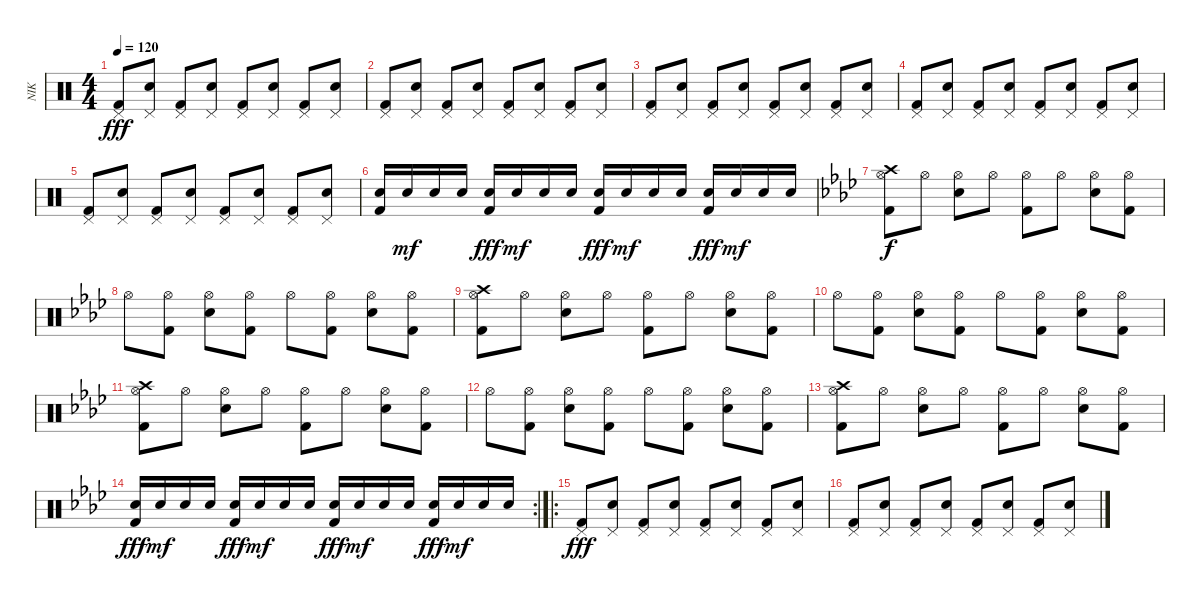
\track ("NIK" "NIK") {instrument percussion}
\staff {score}
\articulation defaults
\ts (4 4)
\tempo 120
\clef neutral
\ks c
("Pedal Hi-Hat (hit)" "Kick (hit) 2").8{dy fff} ("Pedal Hi-Hat (hit)" "Electric Snare (hit)").8 ("Pedal Hi-Hat (hit)" "Kick (hit) 2").8 ("Pedal Hi-Hat (hit)" "Electric Snare (hit)").8 ("Pedal Hi-Hat (hit)" "Kick (hit) 2").8 ("Pedal Hi-Hat (hit)" "Electric Snare (hit)").8 ("Pedal Hi-Hat (hit)" "Kick (hit) 2").8 ("Pedal Hi-Hat (hit)" "Electric Snare (hit)").8 |
("Pedal Hi-Hat (hit)" "Kick (hit) 2").8 ("Pedal Hi-Hat (hit)" "Electric Snare (hit)").8 ("Pedal Hi-Hat (hit)" "Kick (hit) 2").8 ("Pedal Hi-Hat (hit)" "Electric Snare (hit)").8 ("Pedal Hi-Hat (hit)" "Kick (hit) 2").8 ("Pedal Hi-Hat (hit)" "Electric Snare (hit)").8 ("Pedal Hi-Hat (hit)" "Kick (hit) 2").8 ("Pedal Hi-Hat (hit)" "Electric Snare (hit)").8 |
("Pedal Hi-Hat (hit)" "Kick (hit) 2").8 ("Pedal Hi-Hat (hit)" "Electric Snare (hit)").8 ("Pedal Hi-Hat (hit)" "Kick (hit) 2").8 ("Pedal Hi-Hat (hit)" "Electric Snare (hit)").8 ("Pedal Hi-Hat (hit)" "Kick (hit) 2").8 ("Pedal Hi-Hat (hit)" "Electric Snare (hit)").8 ("Pedal Hi-Hat (hit)" "Kick (hit) 2").8 ("Pedal Hi-Hat (hit)" "Electric Snare (hit)").8 |
("Pedal Hi-Hat (hit)" "Kick (hit) 2").8 ("Pedal Hi-Hat (hit)" "Electric Snare (hit)").8 ("Pedal Hi-Hat (hit)" "Kick (hit) 2").8 ("Pedal Hi-Hat (hit)" "Electric Snare (hit)").8 ("Pedal Hi-Hat (hit)" "Kick (hit) 2").8 ("Pedal Hi-Hat (hit)" "Electric Snare (hit)").8 ("Pedal Hi-Hat (hit)" "Kick (hit) 2").8 ("Pedal Hi-Hat (hit)" "Electric Snare (hit)").8 |
("Pedal Hi-Hat (hit)" "Kick (hit) 2").8 ("Pedal Hi-Hat (hit)" "Electric Snare (hit)").8 ("Pedal Hi-Hat (hit)" "Kick (hit) 2").8 ("Pedal Hi-Hat (hit)" "Electric Snare (hit)").8 ("Pedal Hi-Hat (hit)" "Kick (hit) 2").8 ("Pedal Hi-Hat (hit)" "Electric Snare (hit)").8 ("Pedal Hi-Hat (hit)" "Kick (hit) 2").8 ("Pedal Hi-Hat (hit)" "Electric Snare (hit)").8 |
("Electric Snare (hit)" "Kick (hit) 2").16 "Electric Snare (hit)".16{dy mf} "Electric Snare (hit)".16 "Electric Snare (hit)".16 ("Electric Snare (hit)" "Kick (hit) 2").16{dy fff} "Electric Snare (hit)".16{dy mf} "Electric Snare (hit)".16 "Electric Snare (hit)".16 ("Electric Snare (hit)" "Kick (hit) 2").16{dy fff} "Electric Snare (hit)".16{dy mf} "Electric Snare (hit)".16 "Electric Snare (hit)".16 ("Electric Snare (hit)" "Kick (hit) 2").16{dy fff} "Electric Snare (hit)".16{dy mf} "Electric Snare (hit)".16 "Electric Snare (hit)".16 |
\ks ab
("Crash high (hit)" "Hi-Hat (open)" "Kick (hit) 2").8{dy f} "Hi-Hat (open)".8 ("Hi-Hat (open)" "Electric Snare (hit)").8 "Hi-Hat (open)".8 ("Hi-Hat (open)" "Kick (hit) 2").8 "Hi-Hat (open)".8 ("Hi-Hat (open)" "Electric Snare (hit)").8 ("Hi-Hat (open)" "Kick (hit) 2").8 |
"Hi-Hat (open)".8 ("Hi-Hat (open)" "Kick (hit) 2").8 ("Hi-Hat (open)" "Electric Snare (hit)").8 ("Hi-Hat (open)" "Kick (hit) 2").8 "Hi-Hat (open)".8 ("Hi-Hat (open)" "Kick (hit) 2").8 ("Hi-Hat (open)" "Electric Snare (hit)").8 ("Hi-Hat (open)" "Kick (hit) 2").8 |
("Crash high (hit)" "Hi-Hat (open)" "Kick (hit) 2").8 "Hi-Hat (open)".8 ("Hi-Hat (open)" "Electric Snare (hit)").8 "Hi-Hat (open)".8 ("Hi-Hat (open)" "Kick (hit) 2").8 "Hi-Hat (open)".8 ("Hi-Hat (open)" "Electric Snare (hit)").8 ("Hi-Hat (open)" "Kick (hit) 2").8 |
"Hi-Hat (open)".8 ("Hi-Hat (open)" "Kick (hit) 2").8 ("Hi-Hat (open)" "Electric Snare (hit)").8 ("Hi-Hat (open)" "Kick (hit) 2").8 "Hi-Hat (open)".8 ("Hi-Hat (open)" "Kick (hit) 2").8 ("Hi-Hat (open)" "Electric Snare (hit)").8 ("Hi-Hat (open)" "Kick (hit) 2").8 |
("Crash high (hit)" "Hi-Hat (open)" "Kick (hit) 2").8 "Hi-Hat (open)".8 ("Hi-Hat (open)" "Electric Snare (hit)").8 "Hi-Hat (open)".8 ("Hi-Hat (open)" "Kick (hit) 2").8 "Hi-Hat (open)".8 ("Hi-Hat (open)" "Electric Snare (hit)").8 ("Hi-Hat (open)" "Kick (hit) 2").8 |
"Hi-Hat (open)".8 ("Hi-Hat (open)" "Kick (hit) 2").8 ("Hi-Hat (open)" "Electric Snare (hit)").8 ("Hi-Hat (open)" "Kick (hit) 2").8 "Hi-Hat (open)".8 ("Hi-Hat (open)" "Kick (hit) 2").8 ("Hi-Hat (open)" "Electric Snare (hit)").8 ("Hi-Hat (open)" "Kick (hit) 2").8 |
("Crash high (hit)" "Hi-Hat (open)" "Kick (hit) 2").8 "Hi-Hat (open)".8 ("Hi-Hat (open)" "Electric Snare (hit)").8 "Hi-Hat (open)".8 ("Hi-Hat (open)" "Kick (hit) 2").8 "Hi-Hat (open)".8 ("Hi-Hat (open)" "Electric Snare (hit)").8 ("Hi-Hat (open)" "Kick (hit) 2").8 |
\rc 2
("Electric Snare (hit)" "Kick (hit) 2").16{dy fff} "Electric Snare (hit)".16{dy mf} "Electric Snare (hit)".16 "Electric Snare (hit)".16 ("Electric Snare (hit)" "Kick (hit) 2").16{dy fff} "Electric Snare (hit)".16{dy mf} "Electric Snare (hit)".16 "Electric Snare (hit)".16 ("Electric Snare (hit)" "Kick (hit) 2").16{dy fff} "Electric Snare (hit)".16{dy mf} "Electric Snare (hit)".16 "Electric Snare (hit)".16 ("Electric Snare (hit)" "Kick (hit) 2").16{dy fff} "Electric Snare (hit)".16{dy mf} "Electric Snare (hit)".16 "Electric Snare (hit)".16 |
\ro
("Pedal Hi-Hat (hit)" "Kick (hit) 2").8{dy fff} ("Pedal Hi-Hat (hit)" "Electric Snare (hit)").8 ("Pedal Hi-Hat (hit)" "Kick (hit) 2").8 ("Pedal Hi-Hat (hit)" "Electric Snare (hit)").8 ("Pedal Hi-Hat (hit)" "Kick (hit) 2").8 ("Pedal Hi-Hat (hit)" "Electric Snare (hit)").8 ("Pedal Hi-Hat (hit)" "Kick (hit) 2").8 ("Pedal Hi-Hat (hit)" "Electric Snare (hit)").8 |
("Pedal Hi-Hat (hit)" "Kick (hit) 2").8 ("Pedal Hi-Hat (hit)" "Electric Snare (hit)").8 ("Pedal Hi-Hat (hit)" "Kick (hit) 2").8 ("Pedal Hi-Hat (hit)" "Electric Snare (hit)").8 ("Pedal Hi-Hat (hit)" "Kick (hit) 2").8 ("Pedal Hi-Hat (hit)" "Electric Snare (hit)").8 ("Pedal Hi-Hat (hit)" "Kick (hit) 2").8 ("Pedal Hi-Hat (hit)" "Electric Snare (hit)").8
